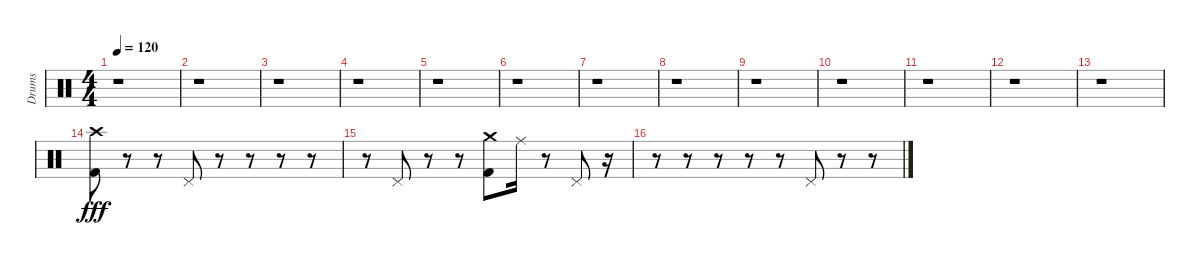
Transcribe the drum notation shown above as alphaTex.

\track ("Drums" "Drums") {instrument percussion}
\staff {score}
\articulation defaults
\ts (4 4)
\tempo 120
\tempo 210
\tempo 120
\clef neutral
\ks c
r.1{dy fff} |
r.1 |
r.1 |
r.1 |
r.1 |
r.1 |
r.1 |
r.1 |
r.1 |
r.1 |
r.1 |
r.1 |
r.1 |
("Crash high (hit)" "Kick (hit) 2").8 r.8 r.8 "Pedal Hi-Hat (hit)".8 r.8 r.8 r.8 r.8 |
r.8 "Pedal Hi-Hat (hit)".8 r.8 r.8 ("Crash medium (hit)" "Kick (hit) 2").8 "Ride (middle)".16 r.8 "Pedal Hi-Hat (hit)".8 r.16 |
r.8 r.8 r.8 r.8 r.8 "Pedal Hi-Hat (hit)".8 r.8 r.8
